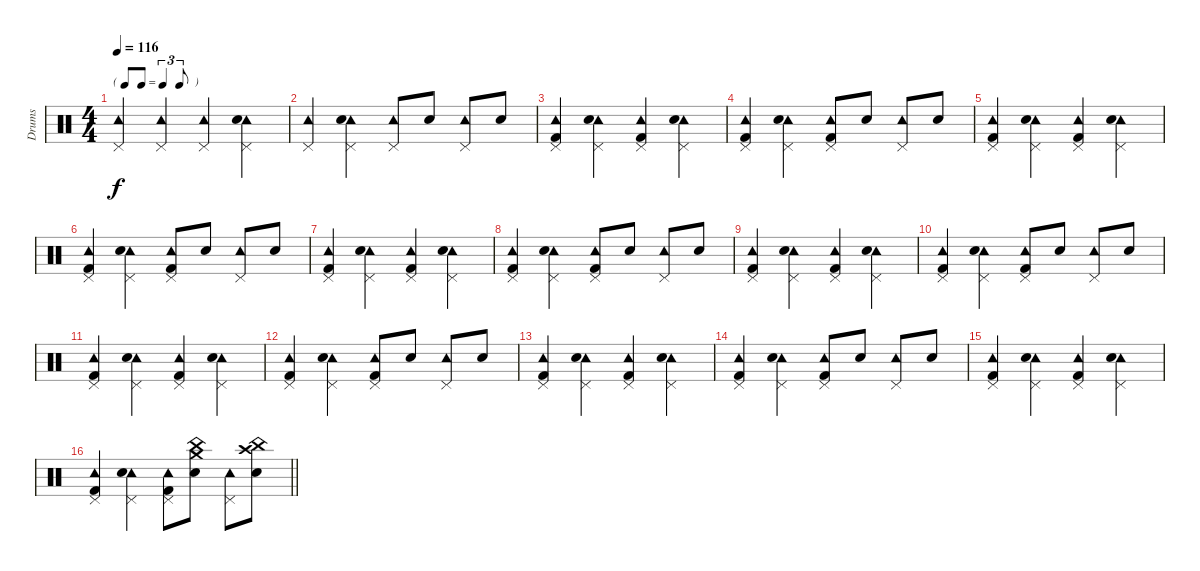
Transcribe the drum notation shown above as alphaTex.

\track ("Drums" "Drums") {instrument percussion}
\staff {score}
\articulation defaults
\ts (4 4)
\tf triplet8th
\tempo 116
\clef neutral
\ks c
("Tambourine (hit)" "Pedal Hi-Hat (hit)").4{dy f volume 7} ("Tambourine (hit)" "Pedal Hi-Hat (hit)").4 ("Tambourine (hit)" "Pedal Hi-Hat (hit)").4 ("Tambourine (hit)" "Pedal Hi-Hat (hit)" "Snare (hit) 2").4 |
("Tambourine (hit)" "Pedal Hi-Hat (hit)").4 ("Tambourine (hit)" "Pedal Hi-Hat (hit)" "Snare (hit) 2").4 ("Tambourine (hit)" "Pedal Hi-Hat (hit)").8 "Snare (hit) 2".8 ("Tambourine (hit)" "Pedal Hi-Hat (hit)").8 "Snare (hit) 2".8 |
("Tambourine (hit)" "Pedal Hi-Hat (hit)" "Kick (hit) 2").4 ("Tambourine (hit)" "Pedal Hi-Hat (hit)" "Snare (hit) 2").4 ("Tambourine (hit)" "Pedal Hi-Hat (hit)" "Kick (hit) 2").4 ("Tambourine (hit)" "Pedal Hi-Hat (hit)" "Snare (hit) 2").4 |
("Tambourine (hit)" "Pedal Hi-Hat (hit)" "Kick (hit) 2").4 ("Tambourine (hit)" "Pedal Hi-Hat (hit)" "Snare (hit) 2").4 ("Tambourine (hit)" "Pedal Hi-Hat (hit)" "Kick (hit) 2").8 "Snare (hit) 2".8 ("Tambourine (hit)" "Pedal Hi-Hat (hit)").8 "Snare (hit) 2".8 |
("Tambourine (hit)" "Pedal Hi-Hat (hit)" "Kick (hit) 2").4 ("Tambourine (hit)" "Pedal Hi-Hat (hit)" "Snare (hit) 2").4 ("Tambourine (hit)" "Pedal Hi-Hat (hit)" "Kick (hit) 2").4 ("Tambourine (hit)" "Pedal Hi-Hat (hit)" "Snare (hit) 2").4 |
("Tambourine (hit)" "Pedal Hi-Hat (hit)" "Kick (hit) 2").4 ("Tambourine (hit)" "Pedal Hi-Hat (hit)" "Snare (hit) 2").4 ("Tambourine (hit)" "Pedal Hi-Hat (hit)" "Kick (hit) 2").8 "Snare (hit) 2".8 ("Tambourine (hit)" "Pedal Hi-Hat (hit)").8 "Snare (hit) 2".8 |
("Tambourine (hit)" "Pedal Hi-Hat (hit)" "Kick (hit) 2").4 ("Tambourine (hit)" "Pedal Hi-Hat (hit)" "Snare (hit) 2").4 ("Tambourine (hit)" "Pedal Hi-Hat (hit)" "Kick (hit) 2").4 ("Tambourine (hit)" "Pedal Hi-Hat (hit)" "Snare (hit) 2").4 |
("Tambourine (hit)" "Pedal Hi-Hat (hit)" "Kick (hit) 2").4 ("Tambourine (hit)" "Pedal Hi-Hat (hit)" "Snare (hit) 2").4 ("Tambourine (hit)" "Pedal Hi-Hat (hit)" "Kick (hit) 2").8 "Snare (hit) 2".8 ("Tambourine (hit)" "Pedal Hi-Hat (hit)").8 "Snare (hit) 2".8 |
("Tambourine (hit)" "Pedal Hi-Hat (hit)" "Kick (hit) 2").4 ("Tambourine (hit)" "Pedal Hi-Hat (hit)" "Snare (hit) 2").4 ("Tambourine (hit)" "Pedal Hi-Hat (hit)" "Kick (hit) 2").4 ("Tambourine (hit)" "Pedal Hi-Hat (hit)" "Snare (hit) 2").4 |
("Tambourine (hit)" "Pedal Hi-Hat (hit)" "Kick (hit) 2").4 ("Tambourine (hit)" "Pedal Hi-Hat (hit)" "Snare (hit) 2").4 ("Tambourine (hit)" "Pedal Hi-Hat (hit)" "Kick (hit) 2").8 "Snare (hit) 2".8 ("Tambourine (hit)" "Pedal Hi-Hat (hit)").8 "Snare (hit) 2".8 |
("Tambourine (hit)" "Pedal Hi-Hat (hit)" "Kick (hit) 2").4 ("Tambourine (hit)" "Pedal Hi-Hat (hit)" "Snare (hit) 2").4 ("Tambourine (hit)" "Pedal Hi-Hat (hit)" "Kick (hit) 2").4 ("Tambourine (hit)" "Pedal Hi-Hat (hit)" "Snare (hit) 2").4 |
("Tambourine (hit)" "Pedal Hi-Hat (hit)" "Kick (hit) 2").4{volume 12} ("Tambourine (hit)" "Pedal Hi-Hat (hit)" "Snare (hit) 2").4 ("Tambourine (hit)" "Pedal Hi-Hat (hit)" "Kick (hit) 2").8 "Snare (hit) 2".8 ("Tambourine (hit)" "Pedal Hi-Hat (hit)").8 "Snare (hit) 2".8 |
("Tambourine (hit)" "Pedal Hi-Hat (hit)" "Kick (hit) 2").4 ("Tambourine (hit)" "Pedal Hi-Hat (hit)" "Snare (hit) 2").4 ("Tambourine (hit)" "Pedal Hi-Hat (hit)" "Kick (hit) 2").4 ("Tambourine (hit)" "Pedal Hi-Hat (hit)" "Snare (hit) 2").4 |
("Tambourine (hit)" "Pedal Hi-Hat (hit)" "Kick (hit) 2").4 ("Tambourine (hit)" "Pedal Hi-Hat (hit)" "Snare (hit) 2").4 ("Tambourine (hit)" "Pedal Hi-Hat (hit)" "Kick (hit) 2").8 "Snare (hit) 2".8 ("Tambourine (hit)" "Pedal Hi-Hat (hit)").8 "Snare (hit) 2".8 |
("Tambourine (hit)" "Pedal Hi-Hat (hit)" "Kick (hit) 2").4 ("Tambourine (hit)" "Pedal Hi-Hat (hit)" "Snare (hit) 2").4 ("Tambourine (hit)" "Pedal Hi-Hat (hit)" "Kick (hit) 2").4 ("Tambourine (hit)" "Pedal Hi-Hat (hit)" "Snare (hit) 2").4 |
\barLineRight lightlight
("Tambourine (hit)" "Pedal Hi-Hat (hit)" "Kick (hit) 2").4 ("Tambourine (hit)" "Pedal Hi-Hat (hit)" "Snare (hit) 2").4 ("Tambourine (hit)" "Pedal Hi-Hat (hit)" "Kick (hit) 2").8 ("Crash medium (hit)" "China (hit)" "Snare (hit) 2").8 ("Tambourine (hit)" "Pedal Hi-Hat (hit)").8 ("Crash high (hit)" "China (hit)" "Snare (hit) 2").8
